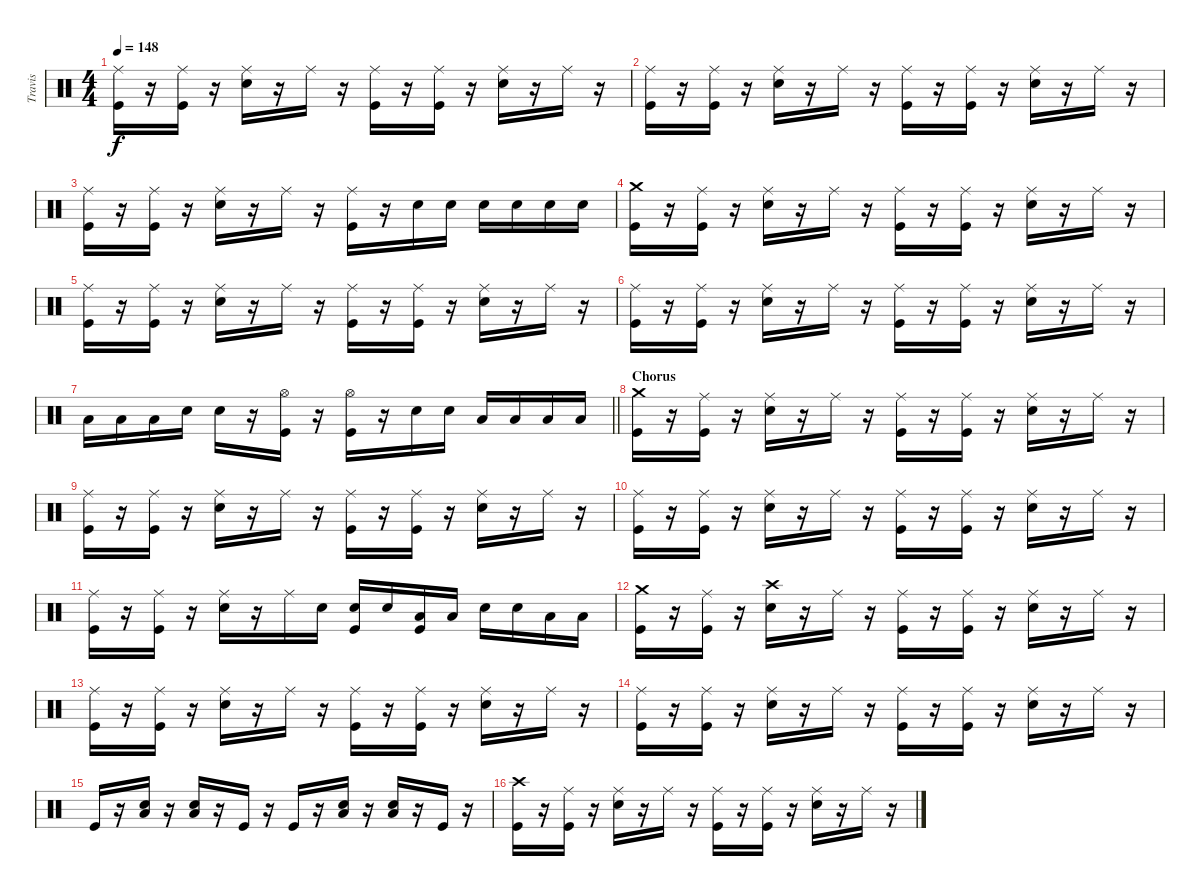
\track ("Travis" "Travis") {instrument percussion}
\staff {score}
\articulation defaults
\ts (4 4)
\tempo 148
\clef neutral
\ks c
("Ride (middle)" "Kick (hit)").16{dy f} r.16 ("Ride (middle)" "Kick (hit)").16 r.16 ("Ride (middle)" "Snare (hit) 2").16 r.16 "Ride (middle)".16 r.16 ("Ride (middle)" "Kick (hit)").16 r.16 ("Ride (middle)" "Kick (hit)").16 r.16 ("Ride (middle)" "Snare (hit) 2").16 r.16 "Ride (middle)".16 r.16 |
("Ride (middle)" "Kick (hit)").16 r.16 ("Ride (middle)" "Kick (hit)").16 r.16 ("Ride (middle)" "Snare (hit) 2").16 r.16 "Ride (middle)".16 r.16 ("Ride (middle)" "Kick (hit)").16 r.16 ("Ride (middle)" "Kick (hit)").16 r.16 ("Ride (middle)" "Snare (hit) 2").16 r.16 "Ride (middle)".16 r.16 |
("Ride (middle)" "Kick (hit)").16 r.16 ("Ride (middle)" "Kick (hit)").16 r.16 ("Ride (middle)" "Snare (hit) 2").16 r.16 "Ride (middle)".16 r.16 ("Ride (middle)" "Kick (hit)").16 r.16 "Snare (hit) 2".16 "Snare (hit) 2".16 "Snare (hit) 2".16 "Snare (hit) 2".16 "Snare (hit) 2".16 "Snare (hit) 2".16 |
("Crash medium (hit)" "Kick (hit)").16 r.16 ("Ride (middle)" "Kick (hit)").16 r.16 ("Ride (middle)" "Snare (hit) 2").16 r.16 "Ride (middle)".16 r.16 ("Ride (middle)" "Kick (hit)").16 r.16 ("Ride (middle)" "Kick (hit)").16 r.16 ("Ride (middle)" "Snare (hit) 2").16 r.16 "Ride (middle)".16 r.16 |
("Ride (middle)" "Kick (hit)").16 r.16 ("Ride (middle)" "Kick (hit)").16 r.16 ("Ride (middle)" "Snare (hit) 2").16 r.16 "Ride (middle)".16 r.16 ("Ride (middle)" "Kick (hit)").16 r.16 ("Ride (middle)" "Kick (hit)").16 r.16 ("Ride (middle)" "Snare (hit) 2").16 r.16 "Ride (middle)".16 r.16 |
("Ride (middle)" "Kick (hit)").16 r.16 ("Ride (middle)" "Kick (hit)").16 r.16 ("Ride (middle)" "Snare (hit) 2").16 r.16 "Ride (middle)".16 r.16 ("Ride (middle)" "Kick (hit)").16 r.16 ("Ride (middle)" "Kick (hit)").16 r.16 ("Ride (middle)" "Snare (hit) 2").16 r.16 "Ride (middle)".16 r.16 |
\barLineRight lightlight "Low Tom (hit)".16 "Low Tom (hit)".16 "Low Tom (hit)".16 "Snare (hit) 2".16 "Snare (hit) 2".16
r.16 ("Hi-Hat (open)" "Kick (hit)").16 r.16 ("Hi-Hat (open)" "Kick (hit)").16 r.16 "Snare (hit) 2".16 "Snare (hit) 2".16 "Low Tom (hit)".16 "Low Tom (hit)".16 "Low Floor Tom (hit)".16 "Low Floor Tom (hit)".16 |
\section ("" "Chorus")
("Crash medium (hit)" "Kick (hit)").16 r.16 ("Ride (middle)" "Kick (hit)").16 r.16 ("Ride (middle)" "Snare (hit) 2").16 r.16 "Ride (middle)".16 r.16 ("Ride (middle)" "Kick (hit)").16 r.16 ("Ride (middle)" "Kick (hit)").16 r.16 ("Ride (middle)" "Snare (hit) 2").16 r.16 "Ride (middle)".16 r.16 |
("Ride (middle)" "Kick (hit)").16 r.16 ("Ride (middle)" "Kick (hit)").16 r.16 ("Ride (middle)" "Snare (hit) 2").16 r.16 "Ride (middle)".16 r.16 ("Ride (middle)" "Kick (hit)").16 r.16 ("Ride (middle)" "Kick (hit)").16 r.16 ("Ride (middle)" "Snare (hit) 2").16 r.16 "Ride (middle)".16 r.16 |
("Ride (middle)" "Kick (hit)").16 r.16 ("Ride (middle)" "Kick (hit)").16 r.16 ("Ride (middle)" "Snare (hit) 2").16 r.16 "Ride (middle)".16 r.16 ("Ride (middle)" "Kick (hit)").16 r.16 ("Ride (middle)" "Kick (hit)").16 r.16 ("Ride (middle)" "Snare (hit) 2").16 r.16 "Ride (middle)".16 r.16 |
("Ride (middle)" "Kick (hit)").16 r.16 ("Ride (middle)" "Kick (hit)").16 r.16 ("Ride (middle)" "Snare (hit) 2").16 r.16 "Ride (middle)".16 "Snare (hit) 2".16 ("Snare (hit) 2" "Kick (hit)").16 "Snare (hit) 2".16 ("Low Tom (hit)" "Kick (hit)").16 "Low Tom (hit)".16 "Snare (hit) 2".16 "Snare (hit) 2".16 "Low Floor Tom (hit)".16 "Low Floor Tom (hit)".16 |
("Crash medium (hit)" "Kick (hit)").16 r.16 ("Ride (middle)" "Kick (hit)").16 r.16 ("Crash high (hit)" "Snare (hit) 2").16 r.16 "Ride (middle)".16 r.16 ("Ride (middle)" "Kick (hit)").16 r.16 ("Ride (middle)" "Kick (hit)").16 r.16 ("Ride (middle)" "Snare (hit) 2").16 r.16 "Ride (middle)".16 r.16 |
("Ride (middle)" "Kick (hit)").16 r.16 ("Ride (middle)" "Kick (hit)").16 r.16 ("Ride (middle)" "Snare (hit) 2").16 r.16 "Ride (middle)".16 r.16 ("Ride (middle)" "Kick (hit)").16 r.16 ("Ride (middle)" "Kick (hit)").16 r.16 ("Ride (middle)" "Snare (hit) 2").16 r.16 "Ride (middle)".16 r.16 |
("Ride (middle)" "Kick (hit)").16 r.16 ("Ride (middle)" "Kick (hit)").16 r.16 ("Ride (middle)" "Snare (hit) 2").16 r.16 "Ride (middle)".16 r.16 ("Ride (middle)" "Kick (hit)").16 r.16 ("Ride (middle)" "Kick (hit)").16 r.16 ("Ride (middle)" "Snare (hit) 2").16 r.16 "Ride (middle)".16 r.16 |
"Kick (hit)".16 r.16 ("Low Floor Tom (hit)" "Snare (hit) 2").16 r.16 ("Low Floor Tom (hit)" "Snare (hit) 2").16 r.16 "Kick (hit)".16 r.16 "Kick (hit)".16 r.16 ("Low Floor Tom (hit)" "Snare (hit) 2").16 r.16 ("Low Floor Tom (hit)" "Snare (hit) 2").16 r.16 "Kick (hit)".16 r.16 |
("Crash high (hit)" "Kick (hit)").16 r.16 ("Ride (middle)" "Kick (hit)").16 r.16 ("Ride (middle)" "Snare (hit) 2").16 r.16 "Ride (middle)".16 r.16 ("Ride (middle)" "Kick (hit)").16 r.16 ("Ride (middle)" "Kick (hit)").16 r.16 ("Ride (middle)" "Snare (hit) 2").16 r.16 "Ride (middle)".16 r.16
